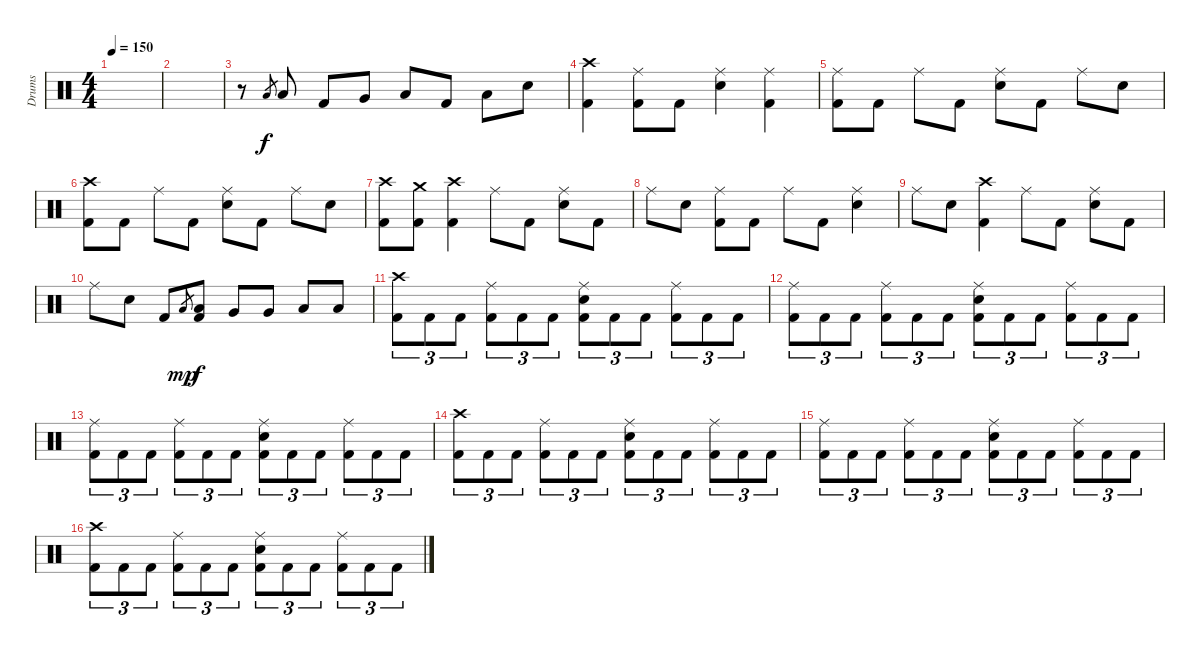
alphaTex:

\track ("Drums" "Drums") {instrument percussion}
\staff {score}
\articulation defaults
\ts (4 4)
\tempo 150
\clef neutral
\ks c
|
|
r.8 "Low Tom (hit)".8{gr} "Low Tom (hit)".8 "Kick (hit) 2".8 "Very Low Tom (hit)".8 "Low Tom (hit)".8 "Kick (hit) 2".8 "Low Floor Tom (hit)".8 "Electric Snare (hit)".8 |
("Crash high (hit)" "Kick (hit) 2").4 ("Ride (middle)" "Kick (hit) 2").8 "Kick (hit) 2".8 ("Ride (middle)" "Electric Snare (hit)").4 ("Ride (middle)" "Kick (hit) 2").4 |
("Ride (middle)" "Kick (hit) 2").8 "Kick (hit) 2".8 "Ride (middle)".8 "Kick (hit) 2".8 ("Ride (middle)" "Electric Snare (hit)").8 "Kick (hit) 2".8 "Ride (middle)".8 "Electric Snare (hit)".8 |
("Crash high (hit)" "Kick (hit) 2").8 "Kick (hit) 2".8 "Ride (middle)".8 "Kick (hit) 2".8 ("Ride (middle)" "Electric Snare (hit)").8 "Kick (hit) 2".8 "Ride (middle)".8 "Electric Snare (hit)".8 |
("Crash high (hit)" "Kick (hit) 2").8 ("Crash medium (hit)" "Kick (hit) 2").8 ("Crash high (hit)" "Kick (hit) 2").4 "Ride (middle)".8 "Kick (hit) 2".8 ("Ride (middle)" "Electric Snare (hit)").8 "Kick (hit) 2".8 |
"Ride (middle)".8 "Electric Snare (hit)".8 ("Ride (middle)" "Kick (hit) 2").8 "Kick (hit) 2".8 "Ride (middle)".8 "Kick (hit) 2".8 ("Ride (middle)" "Electric Snare (hit)").4 |
"Ride (middle)".8 "Electric Snare (hit)".8 ("Crash high (hit)" "Kick (hit) 2").4 "Ride (middle)".8 "Kick (hit) 2".8 ("Ride (middle)" "Electric Snare (hit)").8 "Kick (hit) 2".8 |
"Ride (middle)".8 "Electric Snare (hit)".8 "Kick (hit) 2".8 "Low Tom (hit)".8{gr dy mp} ("Low Tom (hit)" "Kick (hit) 2").8{dy f} "Very Low Tom (hit)".8 "Very Low Tom (hit)".8 "Low Floor Tom (hit)".8 "Low Floor Tom (hit)".8 |
("Crash high (hit)" "Kick (hit) 2").8{tu (3 2)} "Kick (hit) 2".8{tu (3 2)} "Kick (hit) 2".8{tu (3 2)} ("Ride (middle)" "Kick (hit) 2").8{tu (3 2)} "Kick (hit) 2".8{tu (3 2)} "Kick (hit) 2".8{tu (3 2)} ("Ride (middle)" "Electric Snare (hit)" "Kick (hit) 2").8{tu (3 2)} "Kick (hit) 2".8{tu (3 2)} "Kick (hit) 2".8{tu (3 2)} ("Ride (middle)" "Kick (hit) 2").8{tu (3 2)} "Kick (hit) 2".8{tu (3 2)} "Kick (hit) 2".8{tu (3 2)} |
("Ride (middle)" "Kick (hit) 2").8{tu (3 2)} "Kick (hit) 2".8{tu (3 2)} "Kick (hit) 2".8{tu (3 2)} ("Ride (middle)" "Kick (hit) 2").8{tu (3 2)} "Kick (hit) 2".8{tu (3 2)} "Kick (hit) 2".8{tu (3 2)} ("Ride (middle)" "Electric Snare (hit)" "Kick (hit) 2").8{tu (3 2)} "Kick (hit) 2".8{tu (3 2)} "Kick (hit) 2".8{tu (3 2)} ("Ride (middle)" "Kick (hit) 2").8{tu (3 2)} "Kick (hit) 2".8{tu (3 2)} "Kick (hit) 2".8{tu (3 2)} |
("Ride (middle)" "Kick (hit) 2").8{tu (3 2)} "Kick (hit) 2".8{tu (3 2)} "Kick (hit) 2".8{tu (3 2)} ("Ride (middle)" "Kick (hit) 2").8{tu (3 2)} "Kick (hit) 2".8{tu (3 2)} "Kick (hit) 2".8{tu (3 2)} ("Ride (middle)" "Electric Snare (hit)" "Kick (hit) 2").8{tu (3 2)} "Kick (hit) 2".8{tu (3 2)} "Kick (hit) 2".8{tu (3 2)} ("Ride (middle)" "Kick (hit) 2").8{tu (3 2)} "Kick (hit) 2".8{tu (3 2)} "Kick (hit) 2".8{tu (3 2)} |
("Crash high (hit)" "Kick (hit) 2").8{tu (3 2)} "Kick (hit) 2".8{tu (3 2)} "Kick (hit) 2".8{tu (3 2)} ("Ride (middle)" "Kick (hit) 2").8{tu (3 2)} "Kick (hit) 2".8{tu (3 2)} "Kick (hit) 2".8{tu (3 2)} ("Ride (middle)" "Electric Snare (hit)" "Kick (hit) 2").8{tu (3 2)} "Kick (hit) 2".8{tu (3 2)} "Kick (hit) 2".8{tu (3 2)} ("Ride (middle)" "Kick (hit) 2").8{tu (3 2)} "Kick (hit) 2".8{tu (3 2)} "Kick (hit) 2".8{tu (3 2)} |
("Ride (middle)" "Kick (hit) 2").8{tu (3 2)} "Kick (hit) 2".8{tu (3 2)} "Kick (hit) 2".8{tu (3 2)} ("Ride (middle)" "Kick (hit) 2").8{tu (3 2)} "Kick (hit) 2".8{tu (3 2)} "Kick (hit) 2".8{tu (3 2)} ("Ride (middle)" "Electric Snare (hit)" "Kick (hit) 2").8{tu (3 2)} "Kick (hit) 2".8{tu (3 2)} "Kick (hit) 2".8{tu (3 2)} ("Ride (middle)" "Kick (hit) 2").8{tu (3 2)} "Kick (hit) 2".8{tu (3 2)} "Kick (hit) 2".8{tu (3 2)} |
("Crash high (hit)" "Kick (hit) 2").8{tu (3 2)} "Kick (hit) 2".8{tu (3 2)} "Kick (hit) 2".8{tu (3 2)} ("Ride (middle)" "Kick (hit) 2").8{tu (3 2)} "Kick (hit) 2".8{tu (3 2)} "Kick (hit) 2".8{tu (3 2)} ("Ride (middle)" "Electric Snare (hit)" "Kick (hit) 2").8{tu (3 2)} "Kick (hit) 2".8{tu (3 2)} "Kick (hit) 2".8{tu (3 2)} ("Ride (middle)" "Kick (hit) 2").8{tu (3 2)} "Kick (hit) 2".8{tu (3 2)} "Kick (hit) 2".8{tu (3 2)}
